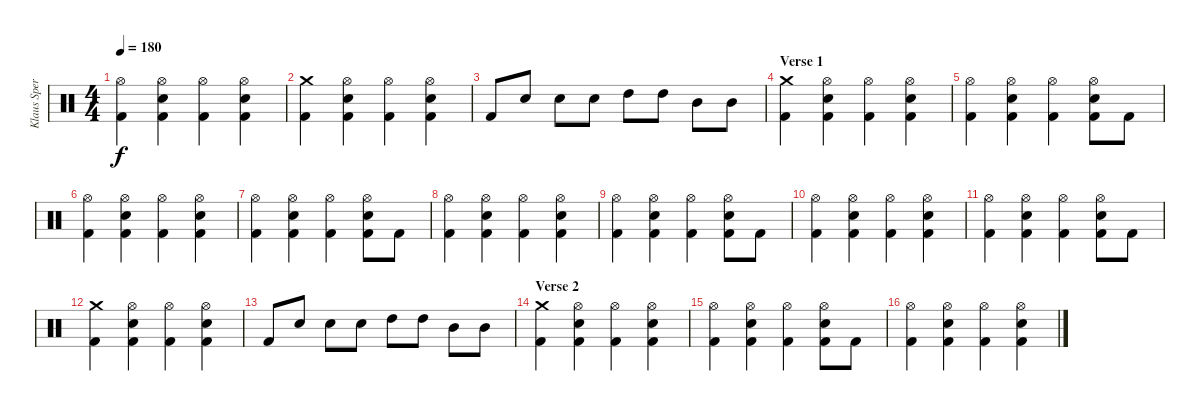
\track ("Klaus Sperling Drums" "Klaus Sper") {instrument percussion}
\staff {score}
\articulation defaults
\ts (4 4)
\tempo 180
\clef neutral
\ks c
("Hi-Hat (open)" "Kick (hit) 2").4{dy f} ("Hi-Hat (open)" "Electric Snare (hit)" "Kick (hit) 2").4 ("Hi-Hat (open)" "Kick (hit) 2").4 ("Hi-Hat (open)" "Electric Snare (hit)" "Kick (hit) 2").4 |
("Crash medium (hit)" "Kick (hit) 2").4 ("Hi-Hat (open)" "Electric Snare (hit)" "Kick (hit) 2").4 ("Hi-Hat (open)" "Kick (hit) 2").4 ("Hi-Hat (open)" "Electric Snare (hit)" "Kick (hit) 2").4 |
"Kick (hit) 2".8 "Electric Snare (hit)".8 "Electric Snare (hit)".8 "Electric Snare (hit)".8 "High Tom (hit)".8 "High Tom (hit)".8 "Mid Tom (hit)".8 "Mid Tom (hit)".8 |
\section ("" "Verse 1")
("Crash medium (hit)" "Kick (hit) 2").4 ("Hi-Hat (open)" "Electric Snare (hit)" "Kick (hit) 2").4 ("Hi-Hat (open)" "Kick (hit) 2").4 ("Hi-Hat (open)" "Electric Snare (hit)" "Kick (hit) 2").4 |
("Hi-Hat (open)" "Kick (hit) 2").4 ("Hi-Hat (open)" "Electric Snare (hit)" "Kick (hit) 2").4 ("Hi-Hat (open)" "Kick (hit) 2").4 ("Hi-Hat (open)" "Electric Snare (hit)" "Kick (hit) 2").8 "Kick (hit) 2".8 |
("Hi-Hat (open)" "Kick (hit) 2").4 ("Hi-Hat (open)" "Electric Snare (hit)" "Kick (hit) 2").4 ("Hi-Hat (open)" "Kick (hit) 2").4 ("Hi-Hat (open)" "Electric Snare (hit)" "Kick (hit) 2").4 |
("Hi-Hat (open)" "Kick (hit) 2").4 ("Hi-Hat (open)" "Electric Snare (hit)" "Kick (hit) 2").4 ("Hi-Hat (open)" "Kick (hit) 2").4 ("Hi-Hat (open)" "Electric Snare (hit)" "Kick (hit) 2").8 "Kick (hit) 2".8 |
("Hi-Hat (open)" "Kick (hit) 2").4 ("Hi-Hat (open)" "Electric Snare (hit)" "Kick (hit) 2").4 ("Hi-Hat (open)" "Kick (hit) 2").4 ("Hi-Hat (open)" "Electric Snare (hit)" "Kick (hit) 2").4 |
("Hi-Hat (open)" "Kick (hit) 2").4 ("Hi-Hat (open)" "Electric Snare (hit)" "Kick (hit) 2").4 ("Hi-Hat (open)" "Kick (hit) 2").4 ("Hi-Hat (open)" "Electric Snare (hit)" "Kick (hit) 2").8 "Kick (hit) 2".8 |
("Hi-Hat (open)" "Kick (hit) 2").4 ("Hi-Hat (open)" "Electric Snare (hit)" "Kick (hit) 2").4 ("Hi-Hat (open)" "Kick (hit) 2").4 ("Hi-Hat (open)" "Electric Snare (hit)" "Kick (hit) 2").4 |
("Hi-Hat (open)" "Kick (hit) 2").4 ("Hi-Hat (open)" "Electric Snare (hit)" "Kick (hit) 2").4 ("Hi-Hat (open)" "Kick (hit) 2").4 ("Hi-Hat (open)" "Electric Snare (hit)" "Kick (hit) 2").8 "Kick (hit) 2".8 |
("Crash medium (hit)" "Kick (hit) 2").4 ("Hi-Hat (open)" "Electric Snare (hit)" "Kick (hit) 2").4 ("Hi-Hat (open)" "Kick (hit) 2").4 ("Hi-Hat (open)" "Electric Snare (hit)" "Kick (hit) 2").4 |
"Kick (hit) 2".8 "Electric Snare (hit)".8 "Electric Snare (hit)".8 "Electric Snare (hit)".8 "High Tom (hit)".8 "High Tom (hit)".8 "Mid Tom (hit)".8 "Mid Tom (hit)".8 |
\section ("" "Verse 2")
("Crash medium (hit)" "Kick (hit) 2").4 ("Hi-Hat (open)" "Electric Snare (hit)" "Kick (hit) 2").4 ("Hi-Hat (open)" "Kick (hit) 2").4 ("Hi-Hat (open)" "Electric Snare (hit)" "Kick (hit) 2").4 |
("Hi-Hat (open)" "Kick (hit) 2").4 ("Hi-Hat (open)" "Electric Snare (hit)" "Kick (hit) 2").4 ("Hi-Hat (open)" "Kick (hit) 2").4 ("Hi-Hat (open)" "Electric Snare (hit)" "Kick (hit) 2").8 "Kick (hit) 2".8 |
("Hi-Hat (open)" "Kick (hit) 2").4 ("Hi-Hat (open)" "Electric Snare (hit)" "Kick (hit) 2").4 ("Hi-Hat (open)" "Kick (hit) 2").4 ("Hi-Hat (open)" "Electric Snare (hit)" "Kick (hit) 2").4
